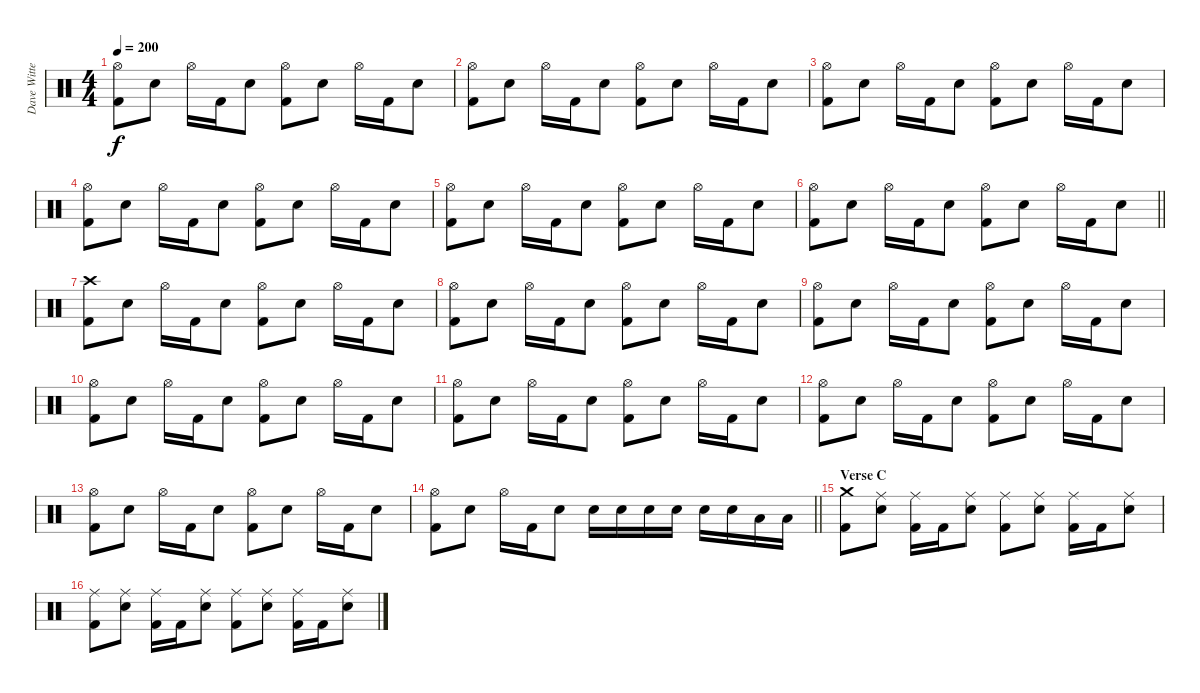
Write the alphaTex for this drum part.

\track ("Dave Witte" "Dave Witte") {instrument percussion}
\staff {score}
\articulation defaults
\ts (4 4)
\tempo 200
\clef neutral
\ks c
("Hi-Hat (open)" "Kick (hit) 2").8{dy f} "Electric Snare (hit)".8 "Hi-Hat (open)".16 "Kick (hit) 2".16 "Electric Snare (hit)".8 ("Hi-Hat (open)" "Kick (hit) 2").8 "Electric Snare (hit)".8 "Hi-Hat (open)".16 "Kick (hit) 2".16 "Electric Snare (hit)".8 |
("Hi-Hat (open)" "Kick (hit) 2").8 "Electric Snare (hit)".8 "Hi-Hat (open)".16 "Kick (hit) 2".16 "Electric Snare (hit)".8 ("Hi-Hat (open)" "Kick (hit) 2").8 "Electric Snare (hit)".8 "Hi-Hat (open)".16 "Kick (hit) 2".16 "Electric Snare (hit)".8 |
("Hi-Hat (open)" "Kick (hit) 2").8 "Electric Snare (hit)".8 "Hi-Hat (open)".16 "Kick (hit) 2".16 "Electric Snare (hit)".8 ("Hi-Hat (open)" "Kick (hit) 2").8 "Electric Snare (hit)".8 "Hi-Hat (open)".16 "Kick (hit) 2".16 "Electric Snare (hit)".8 |
("Hi-Hat (open)" "Kick (hit) 2").8 "Electric Snare (hit)".8 "Hi-Hat (open)".16 "Kick (hit) 2".16 "Electric Snare (hit)".8 ("Hi-Hat (open)" "Kick (hit) 2").8 "Electric Snare (hit)".8 "Hi-Hat (open)".16 "Kick (hit) 2".16 "Electric Snare (hit)".8 |
("Hi-Hat (open)" "Kick (hit) 2").8 "Electric Snare (hit)".8 "Hi-Hat (open)".16 "Kick (hit) 2".16 "Electric Snare (hit)".8 ("Hi-Hat (open)" "Kick (hit) 2").8 "Electric Snare (hit)".8 "Hi-Hat (open)".16 "Kick (hit) 2".16 "Electric Snare (hit)".8 |
\barLineRight lightlight
("Hi-Hat (open)" "Kick (hit) 2").8 "Electric Snare (hit)".8 "Hi-Hat (open)".16 "Kick (hit) 2".16 "Electric Snare (hit)".8 ("Hi-Hat (open)" "Kick (hit) 2").8 "Electric Snare (hit)".8 "Hi-Hat (open)".16 "Kick (hit) 2".16 "Electric Snare (hit)".8 |
("Crash high (hit)" "Kick (hit) 2").8 "Electric Snare (hit)".8 "Hi-Hat (open)".16 "Kick (hit) 2".16 "Electric Snare (hit)".8 ("Hi-Hat (open)" "Kick (hit) 2").8 "Electric Snare (hit)".8 "Hi-Hat (open)".16 "Kick (hit) 2".16 "Electric Snare (hit)".8 |
("Hi-Hat (open)" "Kick (hit) 2").8 "Electric Snare (hit)".8 "Hi-Hat (open)".16 "Kick (hit) 2".16 "Electric Snare (hit)".8 ("Hi-Hat (open)" "Kick (hit) 2").8 "Electric Snare (hit)".8 "Hi-Hat (open)".16 "Kick (hit) 2".16 "Electric Snare (hit)".8 |
("Hi-Hat (open)" "Kick (hit) 2").8 "Electric Snare (hit)".8 "Hi-Hat (open)".16 "Kick (hit) 2".16 "Electric Snare (hit)".8 ("Hi-Hat (open)" "Kick (hit) 2").8 "Electric Snare (hit)".8 "Hi-Hat (open)".16 "Kick (hit) 2".16 "Electric Snare (hit)".8 |
("Hi-Hat (open)" "Kick (hit) 2").8 "Electric Snare (hit)".8 "Hi-Hat (open)".16 "Kick (hit) 2".16 "Electric Snare (hit)".8 ("Hi-Hat (open)" "Kick (hit) 2").8 "Electric Snare (hit)".8 "Hi-Hat (open)".16 "Kick (hit) 2".16 "Electric Snare (hit)".8 |
("Hi-Hat (open)" "Kick (hit) 2").8 "Electric Snare (hit)".8 "Hi-Hat (open)".16 "Kick (hit) 2".16 "Electric Snare (hit)".8 ("Hi-Hat (open)" "Kick (hit) 2").8 "Electric Snare (hit)".8 "Hi-Hat (open)".16 "Kick (hit) 2".16 "Electric Snare (hit)".8 |
("Hi-Hat (open)" "Kick (hit) 2").8 "Electric Snare (hit)".8 "Hi-Hat (open)".16 "Kick (hit) 2".16 "Electric Snare (hit)".8 ("Hi-Hat (open)" "Kick (hit) 2").8 "Electric Snare (hit)".8 "Hi-Hat (open)".16 "Kick (hit) 2".16 "Electric Snare (hit)".8 |
("Hi-Hat (open)" "Kick (hit) 2").8 "Electric Snare (hit)".8 "Hi-Hat (open)".16 "Kick (hit) 2".16 "Electric Snare (hit)".8 ("Hi-Hat (open)" "Kick (hit) 2").8 "Electric Snare (hit)".8 "Hi-Hat (open)".16 "Kick (hit) 2".16 "Electric Snare (hit)".8 |
\barLineRight lightlight
("Hi-Hat (open)" "Kick (hit) 2").8 "Electric Snare (hit)".8 "Hi-Hat (open)".16 "Kick (hit) 2".16 "Electric Snare (hit)".8 "Electric Snare (hit)".16 "Electric Snare (hit)".16 "Electric Snare (hit)".16 "Electric Snare (hit)".16 "Electric Snare (hit)".16 "Electric Snare (hit)".16 "Low Tom (hit)".16 "Low Tom (hit)".16 |
\section ("" "Verse C")
("Crash medium (hit)" "Kick (hit) 2").8 ("Ride (middle)" "Electric Snare (hit)").8 ("Ride (middle)" "Kick (hit) 2").16 "Kick (hit) 2".16 ("Ride (middle)" "Electric Snare (hit)").8 ("Ride (middle)" "Kick (hit) 2").8 ("Ride (middle)" "Electric Snare (hit)").8 ("Ride (middle)" "Kick (hit) 2").16 "Kick (hit) 2".16 ("Ride (middle)" "Electric Snare (hit)").8 |
("Ride (middle)" "Kick (hit) 2").8 ("Ride (middle)" "Electric Snare (hit)").8 ("Ride (middle)" "Kick (hit) 2").16 "Kick (hit) 2".16 ("Ride (middle)" "Electric Snare (hit)").8 ("Ride (middle)" "Kick (hit) 2").8 ("Ride (middle)" "Electric Snare (hit)").8 ("Ride (middle)" "Kick (hit) 2").16 "Kick (hit) 2".16 ("Ride (middle)" "Electric Snare (hit)").8
